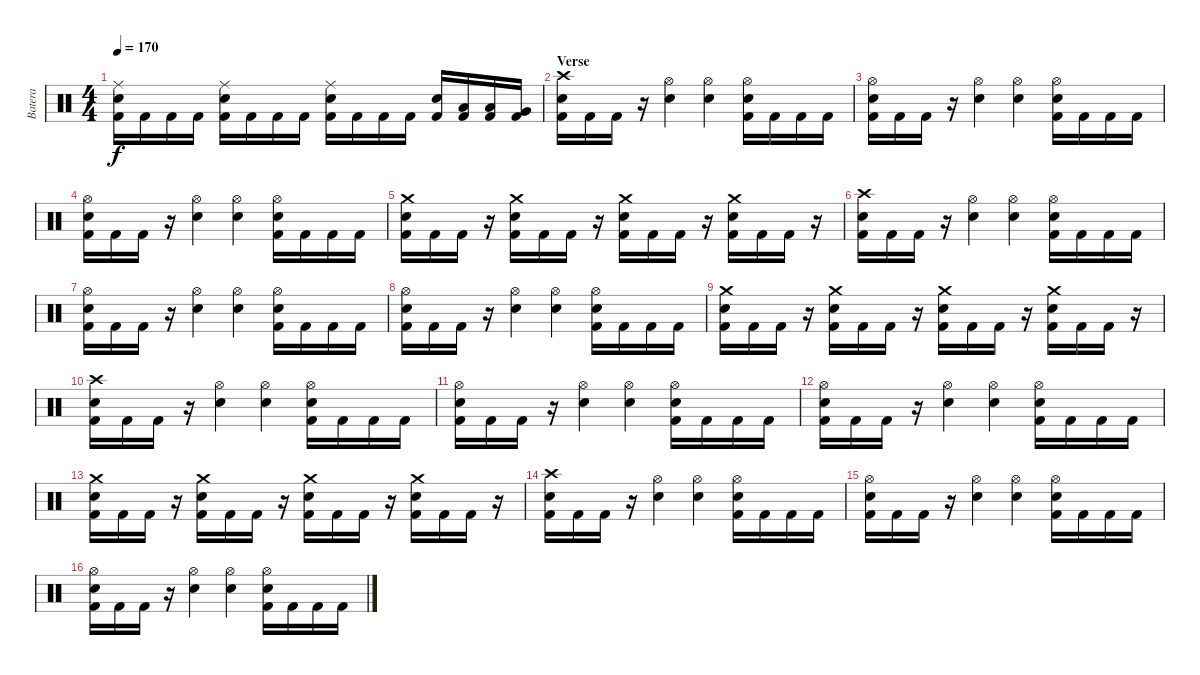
\track ("Batera" "Batera") {instrument percussion}
\staff {score}
\articulation defaults
\ts (4 4)
\tempo 170
\clef neutral
\ks c
("Ride (middle)" "Electric Snare (hit)" "Kick (hit) 2").16{dy f} "Kick (hit) 2".16 "Kick (hit) 2".16 "Kick (hit) 2".16 ("Ride (middle)" "Electric Snare (hit)" "Kick (hit) 2").16 "Kick (hit) 2".16 "Kick (hit) 2".16 "Kick (hit) 2".16 ("Ride (middle)" "Electric Snare (hit)" "Kick (hit) 2").16 "Kick (hit) 2".16 "Kick (hit) 2".16 "Kick (hit) 2".16 ("Electric Snare (hit)" "Kick (hit) 2").16 ("Low Floor Tom (hit)" "Kick (hit) 2").16 ("Low Tom (hit)" "Kick (hit) 2").16 ("Very Low Tom (hit)" "Kick (hit) 2").16 |
\section ("" "Verse")
("Crash high (hit)" "Electric Snare (hit)" "Kick (hit) 2").16 "Kick (hit) 2".16 "Kick (hit) 2".16 r.16 ("Hi-Hat (open)" "Electric Snare (hit)").4 ("Hi-Hat (open)" "Electric Snare (hit)").4 ("Hi-Hat (open)" "Electric Snare (hit)" "Kick (hit) 2").16 "Kick (hit) 2".16 "Kick (hit) 2".16 "Kick (hit) 2".16 |
("Hi-Hat (open)" "Electric Snare (hit)" "Kick (hit) 2").16 "Kick (hit) 2".16 "Kick (hit) 2".16 r.16 ("Hi-Hat (open)" "Electric Snare (hit)").4 ("Hi-Hat (open)" "Electric Snare (hit)").4 ("Hi-Hat (open)" "Electric Snare (hit)" "Kick (hit) 2").16 "Kick (hit) 2".16 "Kick (hit) 2".16 "Kick (hit) 2".16 |
("Hi-Hat (open)" "Electric Snare (hit)" "Kick (hit) 2").16 "Kick (hit) 2".16 "Kick (hit) 2".16 r.16 ("Hi-Hat (open)" "Electric Snare (hit)").4 ("Hi-Hat (open)" "Electric Snare (hit)").4 ("Hi-Hat (open)" "Electric Snare (hit)" "Kick (hit) 2").16 "Kick (hit) 2".16 "Kick (hit) 2".16 "Kick (hit) 2".16 |
("Crash medium (hit)" "Electric Snare (hit)" "Kick (hit) 2").16 "Kick (hit) 2".16 "Kick (hit) 2".16 r.16 ("Crash medium (hit)" "Electric Snare (hit)" "Kick (hit) 2").16 "Kick (hit) 2".16 "Kick (hit) 2".16 r.16 ("Crash medium (hit)" "Electric Snare (hit)" "Kick (hit) 2").16 "Kick (hit) 2".16 "Kick (hit) 2".16 r.16 ("Crash medium (hit)" "Electric Snare (hit)" "Kick (hit) 2").16 "Kick (hit) 2".16 "Kick (hit) 2".16 r.16 |
("Crash high (hit)" "Electric Snare (hit)" "Kick (hit) 2").16 "Kick (hit) 2".16 "Kick (hit) 2".16 r.16 ("Hi-Hat (open)" "Electric Snare (hit)").4 ("Hi-Hat (open)" "Electric Snare (hit)").4 ("Hi-Hat (open)" "Electric Snare (hit)" "Kick (hit) 2").16 "Kick (hit) 2".16 "Kick (hit) 2".16 "Kick (hit) 2".16 |
("Hi-Hat (open)" "Electric Snare (hit)" "Kick (hit) 2").16 "Kick (hit) 2".16 "Kick (hit) 2".16 r.16 ("Hi-Hat (open)" "Electric Snare (hit)").4 ("Hi-Hat (open)" "Electric Snare (hit)").4 ("Hi-Hat (open)" "Electric Snare (hit)" "Kick (hit) 2").16 "Kick (hit) 2".16 "Kick (hit) 2".16 "Kick (hit) 2".16 |
("Hi-Hat (open)" "Electric Snare (hit)" "Kick (hit) 2").16 "Kick (hit) 2".16 "Kick (hit) 2".16 r.16 ("Hi-Hat (open)" "Electric Snare (hit)").4 ("Hi-Hat (open)" "Electric Snare (hit)").4 ("Hi-Hat (open)" "Electric Snare (hit)" "Kick (hit) 2").16 "Kick (hit) 2".16 "Kick (hit) 2".16 "Kick (hit) 2".16 |
("Crash medium (hit)" "Electric Snare (hit)" "Kick (hit) 2").16 "Kick (hit) 2".16 "Kick (hit) 2".16 r.16 ("Crash medium (hit)" "Electric Snare (hit)" "Kick (hit) 2").16 "Kick (hit) 2".16 "Kick (hit) 2".16 r.16 ("Crash medium (hit)" "Electric Snare (hit)" "Kick (hit) 2").16 "Kick (hit) 2".16 "Kick (hit) 2".16 r.16 ("Crash medium (hit)" "Electric Snare (hit)" "Kick (hit) 2").16 "Kick (hit) 2".16 "Kick (hit) 2".16 r.16 |
("Crash high (hit)" "Electric Snare (hit)" "Kick (hit) 2").16 "Kick (hit) 2".16 "Kick (hit) 2".16 r.16 ("Hi-Hat (open)" "Electric Snare (hit)").4 ("Hi-Hat (open)" "Electric Snare (hit)").4 ("Hi-Hat (open)" "Electric Snare (hit)" "Kick (hit) 2").16 "Kick (hit) 2".16 "Kick (hit) 2".16 "Kick (hit) 2".16 |
("Hi-Hat (open)" "Electric Snare (hit)" "Kick (hit) 2").16 "Kick (hit) 2".16 "Kick (hit) 2".16 r.16 ("Hi-Hat (open)" "Electric Snare (hit)").4 ("Hi-Hat (open)" "Electric Snare (hit)").4 ("Hi-Hat (open)" "Electric Snare (hit)" "Kick (hit) 2").16 "Kick (hit) 2".16 "Kick (hit) 2".16 "Kick (hit) 2".16 |
("Hi-Hat (open)" "Electric Snare (hit)" "Kick (hit) 2").16 "Kick (hit) 2".16 "Kick (hit) 2".16 r.16 ("Hi-Hat (open)" "Electric Snare (hit)").4 ("Hi-Hat (open)" "Electric Snare (hit)").4 ("Hi-Hat (open)" "Electric Snare (hit)" "Kick (hit) 2").16 "Kick (hit) 2".16 "Kick (hit) 2".16 "Kick (hit) 2".16 |
("Crash medium (hit)" "Electric Snare (hit)" "Kick (hit) 2").16 "Kick (hit) 2".16 "Kick (hit) 2".16 r.16 ("Crash medium (hit)" "Electric Snare (hit)" "Kick (hit) 2").16 "Kick (hit) 2".16 "Kick (hit) 2".16 r.16 ("Crash medium (hit)" "Electric Snare (hit)" "Kick (hit) 2").16 "Kick (hit) 2".16 "Kick (hit) 2".16 r.16 ("Crash medium (hit)" "Electric Snare (hit)" "Kick (hit) 2").16 "Kick (hit) 2".16 "Kick (hit) 2".16 r.16 |
("Crash high (hit)" "Electric Snare (hit)" "Kick (hit) 2").16 "Kick (hit) 2".16 "Kick (hit) 2".16 r.16 ("Hi-Hat (open)" "Electric Snare (hit)").4 ("Hi-Hat (open)" "Electric Snare (hit)").4 ("Hi-Hat (open)" "Electric Snare (hit)" "Kick (hit) 2").16 "Kick (hit) 2".16 "Kick (hit) 2".16 "Kick (hit) 2".16 |
("Hi-Hat (open)" "Electric Snare (hit)" "Kick (hit) 2").16 "Kick (hit) 2".16 "Kick (hit) 2".16 r.16 ("Hi-Hat (open)" "Electric Snare (hit)").4 ("Hi-Hat (open)" "Electric Snare (hit)").4 ("Hi-Hat (open)" "Electric Snare (hit)" "Kick (hit) 2").16 "Kick (hit) 2".16 "Kick (hit) 2".16 "Kick (hit) 2".16 |
("Hi-Hat (open)" "Electric Snare (hit)" "Kick (hit) 2").16 "Kick (hit) 2".16 "Kick (hit) 2".16 r.16 ("Hi-Hat (open)" "Electric Snare (hit)").4 ("Hi-Hat (open)" "Electric Snare (hit)").4 ("Hi-Hat (open)" "Electric Snare (hit)" "Kick (hit) 2").16 "Kick (hit) 2".16 "Kick (hit) 2".16 "Kick (hit) 2".16
